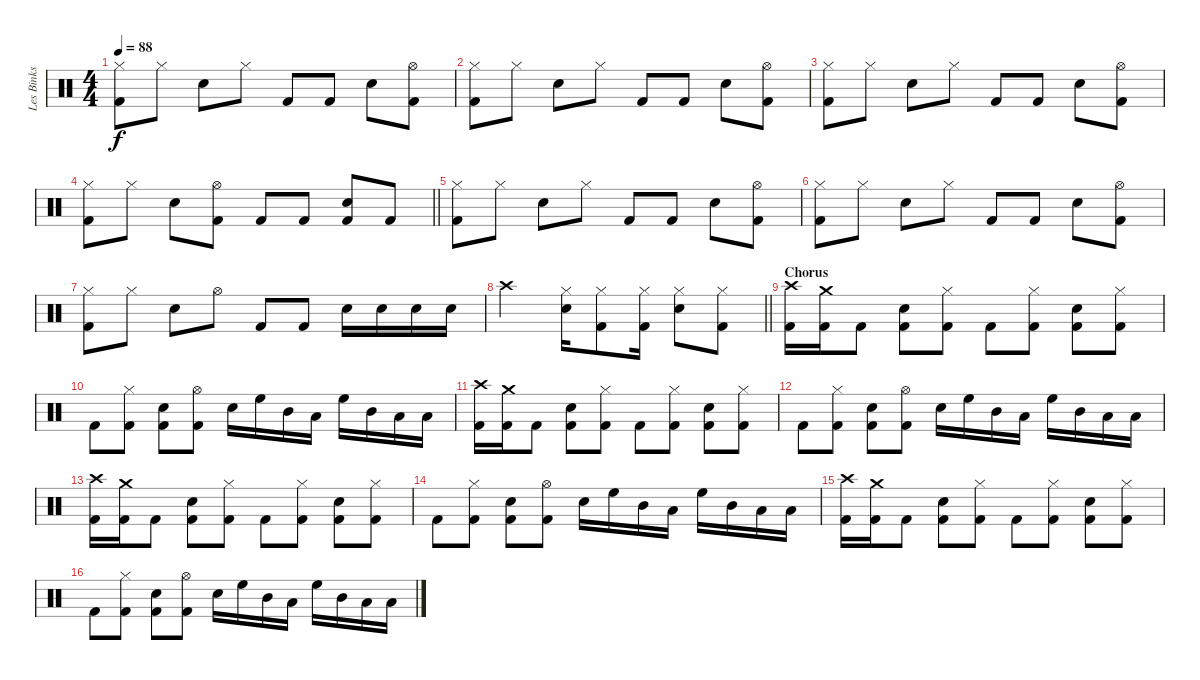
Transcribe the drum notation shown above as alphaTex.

\track ("Les Binks" "Les Binks") {instrument percussion}
\staff {score}
\articulation defaults
\ts (4 4)
\tempo 88
\clef neutral
\ks c
("Hi-Hat (closed)" "Kick (hit) 2").8{dy f} "Hi-Hat (closed)".8 "Snare (hit) 2".8 "Hi-Hat (closed)".8 "Kick (hit) 2".8 "Kick (hit) 2".8 "Snare (hit) 2".8 ("Hi-Hat (open)" "Kick (hit) 2").8 |
("Hi-Hat (closed)" "Kick (hit) 2").8 "Hi-Hat (closed)".8 "Snare (hit) 2".8 "Hi-Hat (closed)".8 "Kick (hit) 2".8 "Kick (hit) 2".8 "Snare (hit) 2".8 ("Hi-Hat (open)" "Kick (hit) 2").8 |
("Hi-Hat (closed)" "Kick (hit) 2").8 "Hi-Hat (closed)".8 "Snare (hit) 2".8 "Hi-Hat (closed)".8 "Kick (hit) 2".8 "Kick (hit) 2".8 "Snare (hit) 2".8 ("Hi-Hat (open)" "Kick (hit) 2").8 |
\barLineRight lightlight
("Hi-Hat (closed)" "Kick (hit) 2").8 "Hi-Hat (closed)".8 "Snare (hit) 2".8 ("Hi-Hat (open)" "Kick (hit) 2").8 "Kick (hit) 2".8 "Kick (hit) 2".8 ("Snare (hit) 2" "Kick (hit) 2").8 "Kick (hit) 2".8 |
("Hi-Hat (closed)" "Kick (hit) 2").8 "Hi-Hat (closed)".8 "Snare (hit) 2".8 "Hi-Hat (closed)".8 "Kick (hit) 2".8 "Kick (hit) 2".8 "Snare (hit) 2".8 ("Hi-Hat (open)" "Kick (hit) 2").8 |
("Hi-Hat (closed)" "Kick (hit) 2").8 "Hi-Hat (closed)".8 "Snare (hit) 2".8 "Hi-Hat (closed)".8 "Kick (hit) 2".8 "Kick (hit) 2".8 "Snare (hit) 2".8 ("Hi-Hat (open)" "Kick (hit) 2").8 |
("Hi-Hat (closed)" "Kick (hit) 2").8 "Hi-Hat (closed)".8 "Snare (hit) 2".8 "Hi-Hat (open)".8 "Kick (hit) 2".8 "Kick (hit) 2".8 "Snare (hit) 2".16 "Snare (hit) 2".16 "Snare (hit) 2".16 "Snare (hit) 2".16 |
\barLineRight lightlight "Crash high (hit)".2
("Hi-Hat (closed)" "Snare (hit) 2").16 ("Hi-Hat (closed)" "Kick (hit) 2").8 ("Hi-Hat (closed)" "Kick (hit) 2").16 ("Hi-Hat (closed)" "Snare (hit) 2").8 ("Hi-Hat (closed)" "Kick (hit) 2").8 |
\section ("" "Chorus")
("Crash high (hit)" "Kick (hit) 2").16 ("Crash medium (hit)" "Kick (hit) 2").16 "Kick (hit) 2".8 ("Snare (hit) 2" "Kick (hit) 2").8 ("Hi-Hat (closed)" "Kick (hit) 2").8 "Kick (hit) 2".8 ("Hi-Hat (closed)" "Kick (hit) 2").8 ("Snare (hit) 2" "Kick (hit) 2").8 ("Hi-Hat (closed)" "Kick (hit) 2").8 |
"Kick (hit) 2".8 ("Hi-Hat (closed)" "Kick (hit) 2").8 ("Snare (hit) 2" "Kick (hit) 2").8 ("Hi-Hat (open)" "Kick (hit) 2").8 "Snare (hit) 2".16 "High Floor Tom (hit)".16 "Mid Tom (hit)".16 "Low Tom (hit)".16 "High Floor Tom (hit)".16 "Mid Tom (hit)".16 "Low Tom (hit)".16 "Low Floor Tom (hit)".16 |
("Crash high (hit)" "Kick (hit) 2").16 ("Crash medium (hit)" "Kick (hit) 2").16 "Kick (hit) 2".8 ("Snare (hit) 2" "Kick (hit) 2").8 ("Hi-Hat (closed)" "Kick (hit) 2").8 "Kick (hit) 2".8 ("Hi-Hat (closed)" "Kick (hit) 2").8 ("Snare (hit) 2" "Kick (hit) 2").8 ("Hi-Hat (closed)" "Kick (hit) 2").8 |
"Kick (hit) 2".8 ("Hi-Hat (closed)" "Kick (hit) 2").8 ("Snare (hit) 2" "Kick (hit) 2").8 ("Hi-Hat (open)" "Kick (hit) 2").8 "Snare (hit) 2".16 "High Floor Tom (hit)".16 "Mid Tom (hit)".16 "Low Tom (hit)".16 "High Floor Tom (hit)".16 "Mid Tom (hit)".16 "Low Tom (hit)".16 "Low Floor Tom (hit)".16 |
("Crash high (hit)" "Kick (hit) 2").16 ("Crash medium (hit)" "Kick (hit) 2").16 "Kick (hit) 2".8 ("Snare (hit) 2" "Kick (hit) 2").8 ("Hi-Hat (closed)" "Kick (hit) 2").8 "Kick (hit) 2".8 ("Hi-Hat (closed)" "Kick (hit) 2").8 ("Snare (hit) 2" "Kick (hit) 2").8 ("Hi-Hat (closed)" "Kick (hit) 2").8 |
"Kick (hit) 2".8 ("Hi-Hat (closed)" "Kick (hit) 2").8 ("Snare (hit) 2" "Kick (hit) 2").8 ("Hi-Hat (open)" "Kick (hit) 2").8 "Snare (hit) 2".16 "High Floor Tom (hit)".16 "Mid Tom (hit)".16 "Low Tom (hit)".16 "High Floor Tom (hit)".16 "Mid Tom (hit)".16 "Low Tom (hit)".16 "Low Floor Tom (hit)".16 |
("Crash high (hit)" "Kick (hit) 2").16 ("Crash medium (hit)" "Kick (hit) 2").16 "Kick (hit) 2".8 ("Snare (hit) 2" "Kick (hit) 2").8 ("Hi-Hat (closed)" "Kick (hit) 2").8 "Kick (hit) 2".8 ("Hi-Hat (closed)" "Kick (hit) 2").8 ("Snare (hit) 2" "Kick (hit) 2").8 ("Hi-Hat (closed)" "Kick (hit) 2").8 |
"Kick (hit) 2".8 ("Hi-Hat (closed)" "Kick (hit) 2").8 ("Snare (hit) 2" "Kick (hit) 2").8 ("Hi-Hat (open)" "Kick (hit) 2").8 "Snare (hit) 2".16 "High Floor Tom (hit)".16 "Mid Tom (hit)".16 "Low Tom (hit)".16 "High Floor Tom (hit)".16 "Mid Tom (hit)".16 "Low Tom (hit)".16 "Low Floor Tom (hit)".16
